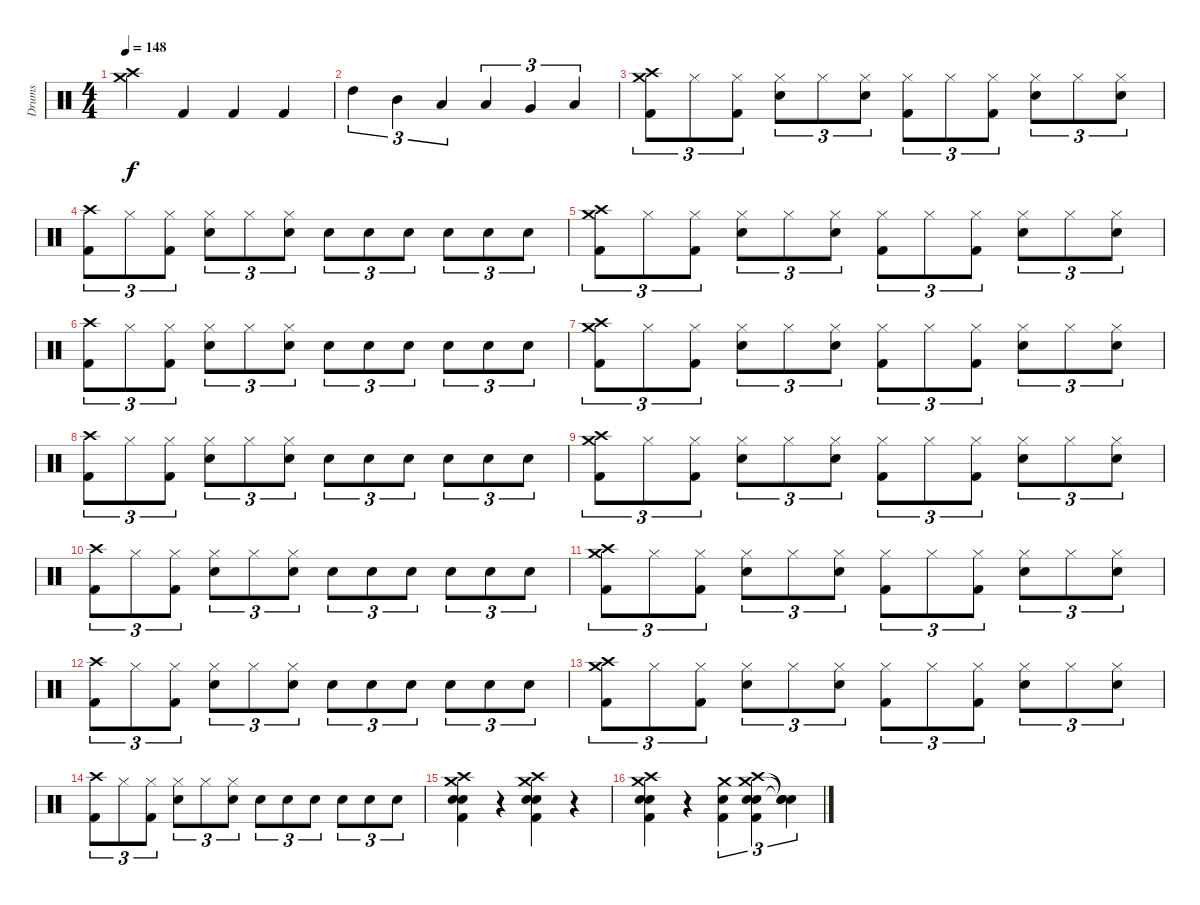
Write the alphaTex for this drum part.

\track ("Drums" "Drums") {instrument percussion}
\staff {score}
\articulation defaults
\ts (4 4)
\tempo 148
\clef neutral
\ks c
("Crash medium (hit)" "Crash high (hit)").4{dy f} "Kick (hit) 2".4 "Kick (hit) 2".4 "Kick (hit) 2".4 |
"High Tom (hit)".4{tu (3 2)} "Mid Tom (hit)".4{tu (3 2)} "Low Tom (hit)".4{tu (3 2)} "Low Tom (hit)".4{tu (3 2)} "Very Low Tom (hit)".4{tu (3 2)} "Low Floor Tom (hit)".4{tu (3 2)} |
("Crash medium (hit)" "Crash high (hit)" "Kick (hit) 2").8{tu (3 2)} "Hi-Hat (closed)".8{tu (3 2)} ("Hi-Hat (closed)" "Kick (hit) 2").8{tu (3 2)} ("Hi-Hat (closed)" "Snare (hit) 2").8{tu (3 2)} "Hi-Hat (closed)".8{tu (3 2)} ("Hi-Hat (closed)" "Snare (hit) 2").8{tu (3 2)} ("Hi-Hat (closed)" "Kick (hit) 2").8{tu (3 2)} "Hi-Hat (closed)".8{tu (3 2)} ("Hi-Hat (closed)" "Kick (hit) 2").8{tu (3 2)} ("Hi-Hat (closed)" "Snare (hit) 2").8{tu (3 2)} "Hi-Hat (closed)".8{tu (3 2)} ("Hi-Hat (closed)" "Snare (hit) 2").8{tu (3 2)} |
("Crash high (hit)" "Kick (hit) 2").8{tu (3 2)} "Hi-Hat (closed)".8{tu (3 2)} ("Hi-Hat (closed)" "Kick (hit) 2").8{tu (3 2)} ("Hi-Hat (closed)" "Snare (hit) 2").8{tu (3 2)} "Hi-Hat (closed)".8{tu (3 2)} ("Hi-Hat (closed)" "Snare (hit) 2").8{tu (3 2)} "Snare (hit) 2".8{tu (3 2)} "Snare (hit) 2".8{tu (3 2)} "Snare (hit) 2".8{tu (3 2)} "Snare (hit) 2".8{tu (3 2)} "Snare (hit) 2".8{tu (3 2)} "Snare (hit) 2".8{tu (3 2)} |
("Crash medium (hit)" "Crash high (hit)" "Kick (hit) 2").8{tu (3 2)} "Hi-Hat (closed)".8{tu (3 2)} ("Hi-Hat (closed)" "Kick (hit) 2").8{tu (3 2)} ("Hi-Hat (closed)" "Snare (hit) 2").8{tu (3 2)} "Hi-Hat (closed)".8{tu (3 2)} ("Hi-Hat (closed)" "Snare (hit) 2").8{tu (3 2)} ("Hi-Hat (closed)" "Kick (hit) 2").8{tu (3 2)} "Hi-Hat (closed)".8{tu (3 2)} ("Hi-Hat (closed)" "Kick (hit) 2").8{tu (3 2)} ("Hi-Hat (closed)" "Snare (hit) 2").8{tu (3 2)} "Hi-Hat (closed)".8{tu (3 2)} ("Hi-Hat (closed)" "Snare (hit) 2").8{tu (3 2)} |
("Crash high (hit)" "Kick (hit) 2").8{tu (3 2)} "Hi-Hat (closed)".8{tu (3 2)} ("Hi-Hat (closed)" "Kick (hit) 2").8{tu (3 2)} ("Hi-Hat (closed)" "Snare (hit) 2").8{tu (3 2)} "Hi-Hat (closed)".8{tu (3 2)} ("Hi-Hat (closed)" "Snare (hit) 2").8{tu (3 2)} "Snare (hit) 2".8{tu (3 2)} "Snare (hit) 2".8{tu (3 2)} "Snare (hit) 2".8{tu (3 2)} "Snare (hit) 2".8{tu (3 2)} "Snare (hit) 2".8{tu (3 2)} "Snare (hit) 2".8{tu (3 2)} |
("Crash medium (hit)" "Crash high (hit)" "Kick (hit) 2").8{tu (3 2)} "Hi-Hat (closed)".8{tu (3 2)} ("Hi-Hat (closed)" "Kick (hit) 2").8{tu (3 2)} ("Hi-Hat (closed)" "Snare (hit) 2").8{tu (3 2)} "Hi-Hat (closed)".8{tu (3 2)} ("Hi-Hat (closed)" "Snare (hit) 2").8{tu (3 2)} ("Hi-Hat (closed)" "Kick (hit) 2").8{tu (3 2)} "Hi-Hat (closed)".8{tu (3 2)} ("Hi-Hat (closed)" "Kick (hit) 2").8{tu (3 2)} ("Hi-Hat (closed)" "Snare (hit) 2").8{tu (3 2)} "Hi-Hat (closed)".8{tu (3 2)} ("Hi-Hat (closed)" "Snare (hit) 2").8{tu (3 2)} |
("Crash high (hit)" "Kick (hit) 2").8{tu (3 2)} "Hi-Hat (closed)".8{tu (3 2)} ("Hi-Hat (closed)" "Kick (hit) 2").8{tu (3 2)} ("Hi-Hat (closed)" "Snare (hit) 2").8{tu (3 2)} "Hi-Hat (closed)".8{tu (3 2)} ("Hi-Hat (closed)" "Snare (hit) 2").8{tu (3 2)} "Snare (hit) 2".8{tu (3 2)} "Snare (hit) 2".8{tu (3 2)} "Snare (hit) 2".8{tu (3 2)} "Snare (hit) 2".8{tu (3 2)} "Snare (hit) 2".8{tu (3 2)} "Snare (hit) 2".8{tu (3 2)} |
("Crash medium (hit)" "Crash high (hit)" "Kick (hit) 2").8{tu (3 2)} "Hi-Hat (closed)".8{tu (3 2)} ("Hi-Hat (closed)" "Kick (hit) 2").8{tu (3 2)} ("Hi-Hat (closed)" "Snare (hit) 2").8{tu (3 2)} "Hi-Hat (closed)".8{tu (3 2)} ("Hi-Hat (closed)" "Snare (hit) 2").8{tu (3 2)} ("Hi-Hat (closed)" "Kick (hit) 2").8{tu (3 2)} "Hi-Hat (closed)".8{tu (3 2)} ("Hi-Hat (closed)" "Kick (hit) 2").8{tu (3 2)} ("Hi-Hat (closed)" "Snare (hit) 2").8{tu (3 2)} "Hi-Hat (closed)".8{tu (3 2)} ("Hi-Hat (closed)" "Snare (hit) 2").8{tu (3 2)} |
("Crash high (hit)" "Kick (hit) 2").8{tu (3 2)} "Hi-Hat (closed)".8{tu (3 2)} ("Hi-Hat (closed)" "Kick (hit) 2").8{tu (3 2)} ("Hi-Hat (closed)" "Snare (hit) 2").8{tu (3 2)} "Hi-Hat (closed)".8{tu (3 2)} ("Hi-Hat (closed)" "Snare (hit) 2").8{tu (3 2)} "Snare (hit) 2".8{tu (3 2)} "Snare (hit) 2".8{tu (3 2)} "Snare (hit) 2".8{tu (3 2)} "Snare (hit) 2".8{tu (3 2)} "Snare (hit) 2".8{tu (3 2)} "Snare (hit) 2".8{tu (3 2)} |
("Crash medium (hit)" "Crash high (hit)" "Kick (hit) 2").8{tu (3 2)} "Hi-Hat (closed)".8{tu (3 2)} ("Hi-Hat (closed)" "Kick (hit) 2").8{tu (3 2)} ("Hi-Hat (closed)" "Snare (hit) 2").8{tu (3 2)} "Hi-Hat (closed)".8{tu (3 2)} ("Hi-Hat (closed)" "Snare (hit) 2").8{tu (3 2)} ("Hi-Hat (closed)" "Kick (hit) 2").8{tu (3 2)} "Hi-Hat (closed)".8{tu (3 2)} ("Hi-Hat (closed)" "Kick (hit) 2").8{tu (3 2)} ("Hi-Hat (closed)" "Snare (hit) 2").8{tu (3 2)} "Hi-Hat (closed)".8{tu (3 2)} ("Hi-Hat (closed)" "Snare (hit) 2").8{tu (3 2)} |
("Crash high (hit)" "Kick (hit) 2").8{tu (3 2)} "Hi-Hat (closed)".8{tu (3 2)} ("Hi-Hat (closed)" "Kick (hit) 2").8{tu (3 2)} ("Hi-Hat (closed)" "Snare (hit) 2").8{tu (3 2)} "Hi-Hat (closed)".8{tu (3 2)} ("Hi-Hat (closed)" "Snare (hit) 2").8{tu (3 2)} "Snare (hit) 2".8{tu (3 2)} "Snare (hit) 2".8{tu (3 2)} "Snare (hit) 2".8{tu (3 2)} "Snare (hit) 2".8{tu (3 2)} "Snare (hit) 2".8{tu (3 2)} "Snare (hit) 2".8{tu (3 2)} |
("Crash medium (hit)" "Crash high (hit)" "Kick (hit) 2").8{tu (3 2)} "Hi-Hat (closed)".8{tu (3 2)} ("Hi-Hat (closed)" "Kick (hit) 2").8{tu (3 2)} ("Hi-Hat (closed)" "Snare (hit) 2").8{tu (3 2)} "Hi-Hat (closed)".8{tu (3 2)} ("Hi-Hat (closed)" "Snare (hit) 2").8{tu (3 2)} ("Hi-Hat (closed)" "Kick (hit) 2").8{tu (3 2)} "Hi-Hat (closed)".8{tu (3 2)} ("Hi-Hat (closed)" "Kick (hit) 2").8{tu (3 2)} ("Hi-Hat (closed)" "Snare (hit) 2").8{tu (3 2)} "Hi-Hat (closed)".8{tu (3 2)} ("Hi-Hat (closed)" "Snare (hit) 2").8{tu (3 2)} |
("Crash high (hit)" "Kick (hit) 2").8{tu (3 2)} "Hi-Hat (closed)".8{tu (3 2)} ("Hi-Hat (closed)" "Kick (hit) 2").8{tu (3 2)} ("Hi-Hat (closed)" "Snare (hit) 2").8{tu (3 2)} "Hi-Hat (closed)".8{tu (3 2)} ("Hi-Hat (closed)" "Snare (hit) 2").8{tu (3 2)} "Snare (hit) 2".8{tu (3 2)} "Snare (hit) 2".8{tu (3 2)} "Snare (hit) 2".8{tu (3 2)} "Snare (hit) 2".8{tu (3 2)} "Snare (hit) 2".8{tu (3 2)} "Snare (hit) 2".8{tu (3 2)} |
("Crash high (hit)" "Crash medium (hit)" "Snare (hit) 2" "Kick (hit) 2" "Snare (hit) 2").4 r.4 ("Crash high (hit)" "Crash medium (hit)" "Snare (hit) 2" "Kick (hit) 2" "Snare (hit) 2").4 r.4 |
("Crash high (hit)" "Crash medium (hit)" "Snare (hit) 2" "Kick (hit) 2" "Snare (hit) 2").4 r.4 ("Crash medium (hit)" "Kick (hit) 2" "Snare (hit) 2").4{tu (3 2)} ("Crash high (hit)" "Crash medium (hit)" "Snare (hit) 2" "Kick (hit) 2" "Snare (hit) 2").4{tu (3 2)} ("Snare (hit)"{t} "Snare (hit)"{t} "Snare (hit)"{t}).4{tu (3 2)}
